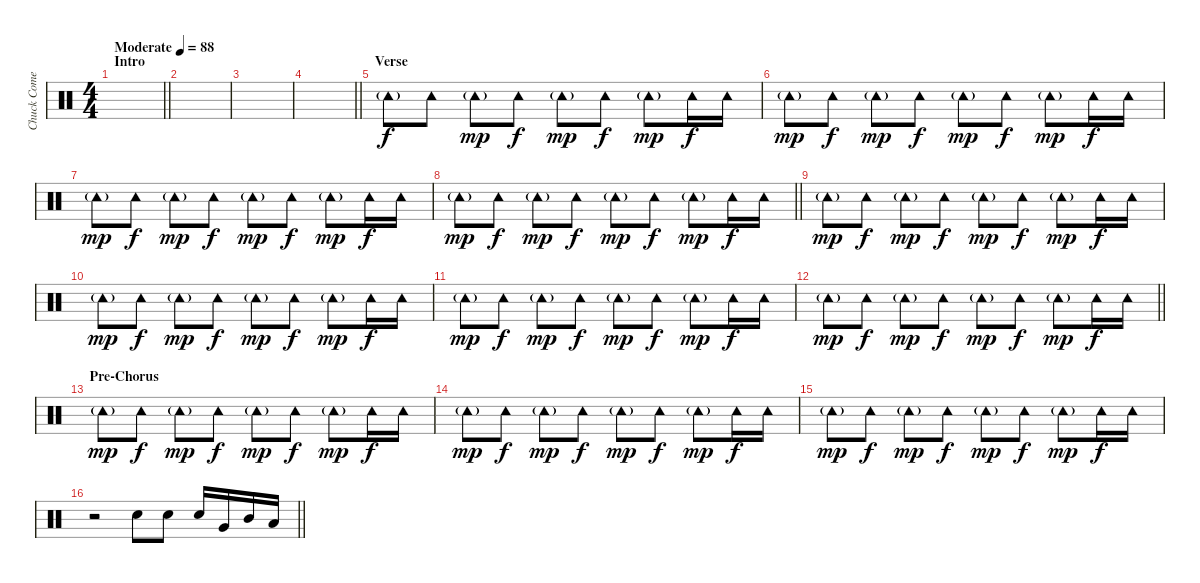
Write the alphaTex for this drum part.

\track ("Chuck Comeau" "Chuck Come") {instrument percussion}
\staff {score}
\articulation defaults
\ts (4 4)
\section ("" "Intro")
\tempo (88 "Moderate")
\clef neutral
\barLineRight lightlight
\ks c
|
|
|
\barLineRight lightlight
|
\section ("" "Verse")
"Tambourine (hit)"{g}.8 "Tambourine (hit)".8{dy f} "Tambourine (hit)"{g}.8{dy mp} "Tambourine (hit)".8{dy f} "Tambourine (hit)"{g}.8{dy mp} "Tambourine (hit)".8{dy f} "Tambourine (hit)"{g}.8{dy mp} "Tambourine (hit)".16{dy f} "Tambourine (hit)".16 |
"Tambourine (hit)"{g}.8{dy mp} "Tambourine (hit)".8{dy f} "Tambourine (hit)"{g}.8{dy mp} "Tambourine (hit)".8{dy f} "Tambourine (hit)"{g}.8{dy mp} "Tambourine (hit)".8{dy f} "Tambourine (hit)"{g}.8{dy mp} "Tambourine (hit)".16{dy f} "Tambourine (hit)".16 |
"Tambourine (hit)"{g}.8{dy mp} "Tambourine (hit)".8{dy f} "Tambourine (hit)"{g}.8{dy mp} "Tambourine (hit)".8{dy f} "Tambourine (hit)"{g}.8{dy mp} "Tambourine (hit)".8{dy f} "Tambourine (hit)"{g}.8{dy mp} "Tambourine (hit)".16{dy f} "Tambourine (hit)".16 |
\barLineRight lightlight "Tambourine (hit)"{g}.8{dy mp} "Tambourine (hit)".8{dy f} "Tambourine (hit)"{g}.8{dy mp} "Tambourine (hit)".8{dy f} "Tambourine (hit)"{g}.8{dy mp} "Tambourine (hit)".8{dy f} "Tambourine (hit)"{g}.8{dy mp} "Tambourine (hit)".16{dy f} "Tambourine (hit)".16
|
"Tambourine (hit)"{g}.8{dy mp} "Tambourine (hit)".8{dy f} "Tambourine (hit)"{g}.8{dy mp} "Tambourine (hit)".8{dy f} "Tambourine (hit)"{g}.8{dy mp} "Tambourine (hit)".8{dy f} "Tambourine (hit)"{g}.8{dy mp} "Tambourine (hit)".16{dy f} "Tambourine (hit)".16 |
"Tambourine (hit)"{g}.8{dy mp} "Tambourine (hit)".8{dy f} "Tambourine (hit)"{g}.8{dy mp} "Tambourine (hit)".8{dy f} "Tambourine (hit)"{g}.8{dy mp} "Tambourine (hit)".8{dy f} "Tambourine (hit)"{g}.8{dy mp} "Tambourine (hit)".16{dy f} "Tambourine (hit)".16 |
"Tambourine (hit)"{g}.8{dy mp} "Tambourine (hit)".8{dy f} "Tambourine (hit)"{g}.8{dy mp} "Tambourine (hit)".8{dy f} "Tambourine (hit)"{g}.8{dy mp} "Tambourine (hit)".8{dy f} "Tambourine (hit)"{g}.8{dy mp} "Tambourine (hit)".16{dy f} "Tambourine (hit)".16 |
\barLineRight lightlight "Tambourine (hit)"{g}.8{dy mp} "Tambourine (hit)".8{dy f} "Tambourine (hit)"{g}.8{dy mp} "Tambourine (hit)".8{dy f} "Tambourine (hit)"{g}.8{dy mp} "Tambourine (hit)".8{dy f} "Tambourine (hit)"{g}.8{dy mp} "Tambourine (hit)".16{dy f} "Tambourine (hit)".16
|
\section ("" "Pre-Chorus")
"Tambourine (hit)"{g}.8{dy mp} "Tambourine (hit)".8{dy f} "Tambourine (hit)"{g}.8{dy mp} "Tambourine (hit)".8{dy f} "Tambourine (hit)"{g}.8{dy mp} "Tambourine (hit)".8{dy f} "Tambourine (hit)"{g}.8{dy mp} "Tambourine (hit)".16{dy f} "Tambourine (hit)".16 |
"Tambourine (hit)"{g}.8{dy mp} "Tambourine (hit)".8{dy f} "Tambourine (hit)"{g}.8{dy mp} "Tambourine (hit)".8{dy f} "Tambourine (hit)"{g}.8{dy mp} "Tambourine (hit)".8{dy f} "Tambourine (hit)"{g}.8{dy mp} "Tambourine (hit)".16{dy f} "Tambourine (hit)".16 |
"Tambourine (hit)"{g}.8{dy mp} "Tambourine (hit)".8{dy f} "Tambourine (hit)"{g}.8{dy mp} "Tambourine (hit)".8{dy f} "Tambourine (hit)"{g}.8{dy mp} "Tambourine (hit)".8{dy f} "Tambourine (hit)"{g}.8{dy mp} "Tambourine (hit)".16{dy f} "Tambourine (hit)".16 |
\barLineRight lightlight
r.2 "Snare (hit) 2".8 "Snare (hit) 2".8 "Snare (hit) 2".16 "Very Low Tom (hit)".16 "Mid Tom (hit)".16 "Low Tom (hit)".16
